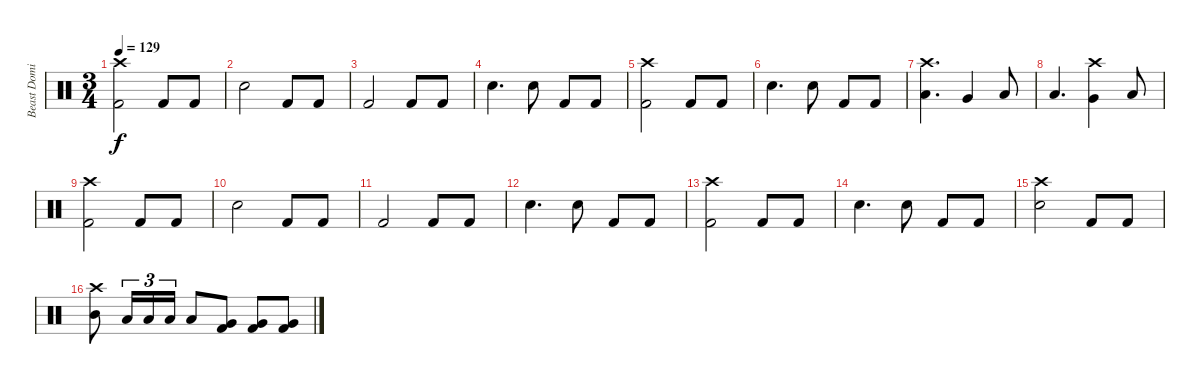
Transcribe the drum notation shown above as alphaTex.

\track ("Beast Dominator" "Beast Domi") {instrument percussion}
\staff
\articulation defaults
\ts (3 4)
\tempo 129
\clef neutral
\ks c
("Crash high (hit)" "Kick (hit) 2").2{dy f} "Kick (hit) 2".8 "Kick (hit) 2".8 |
"Snare (hit) 2".2 "Kick (hit) 2".8 "Kick (hit) 2".8 |
"Kick (hit) 2".2 "Kick (hit) 2".8 "Kick (hit) 2".8 |
"Snare (hit) 2".4{d} "Snare (hit) 2".8 "Kick (hit) 2".8 "Kick (hit) 2".8 |
("Crash high (hit)" "Kick (hit) 2").2 "Kick (hit) 2".8 "Kick (hit) 2".8 |
"Snare (hit) 2".4{d} "Snare (hit) 2".8 "Kick (hit) 2".8 "Kick (hit) 2".8 |
("Crash high (hit)" "Low Tom (hit)").4{d} "Very Low Tom (hit)".4 "Low Floor Tom (hit)".8 |
"Low Floor Tom (hit)".4{d} ("Crash high (hit)" "Very Low Tom (hit)").4 "Low Floor Tom (hit)".8 |
("Crash high (hit)" "Kick (hit) 2").2 "Kick (hit) 2".8 "Kick (hit) 2".8 |
"Snare (hit) 2".2 "Kick (hit) 2".8 "Kick (hit) 2".8 |
"Kick (hit) 2".2 "Kick (hit) 2".8 "Kick (hit) 2".8 |
"Snare (hit) 2".4{d} "Snare (hit) 2".8 "Kick (hit) 2".8 "Kick (hit) 2".8 |
("Crash high (hit)" "Kick (hit) 2").2 "Kick (hit) 2".8 "Kick (hit) 2".8 |
"Snare (hit) 2".4{d} "Snare (hit) 2".8 "Kick (hit) 2".8 "Kick (hit) 2".8 |
("Crash high (hit)" "Snare (hit) 2").2 "Kick (hit) 2".8 "Kick (hit) 2".8 |
("Crash high (hit)" "Mid Tom (hit)").8 "Low Tom (hit)".16{tu (3 2)} "Low Tom (hit)".16{tu (3 2)} "Low Tom (hit)".16{tu (3 2)} "Low Tom (hit)".8 ("Very Low Tom (hit)" "Kick (hit) 2").8 ("Very Low Tom (hit)" "Kick (hit) 2").8 ("Very Low Tom (hit)" "Kick (hit) 2").8
